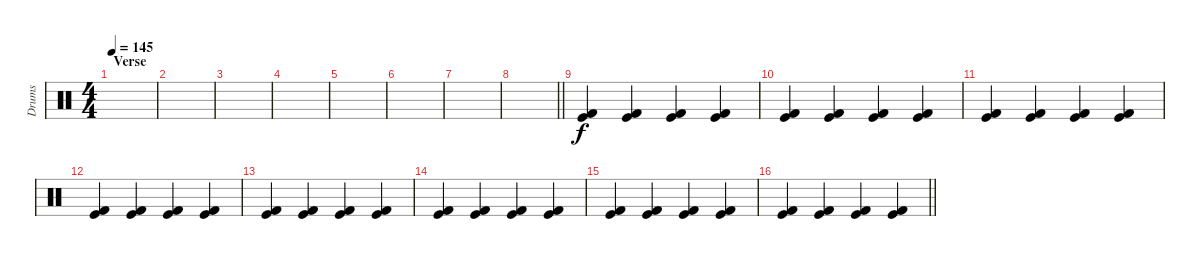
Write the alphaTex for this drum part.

\track ("Drums" "Drums") {instrument percussion}
\staff {score}
\articulation defaults
\ts (4 4)
\section ("" "Verse")
\tempo 145
\clef neutral
\ks c
|
|
|
|
|
|
|
\barLineRight lightlight
|
("Kick (hit)" "Kick (hit) 2").4 ("Kick (hit)" "Kick (hit) 2").4 ("Kick (hit)" "Kick (hit) 2").4 ("Kick (hit)" "Kick (hit) 2").4 |
("Kick (hit)" "Kick (hit) 2").4 ("Kick (hit)" "Kick (hit) 2").4 ("Kick (hit)" "Kick (hit) 2").4 ("Kick (hit)" "Kick (hit) 2").4 |
("Kick (hit)" "Kick (hit) 2").4 ("Kick (hit)" "Kick (hit) 2").4 ("Kick (hit)" "Kick (hit) 2").4 ("Kick (hit)" "Kick (hit) 2").4 |
("Kick (hit)" "Kick (hit) 2").4 ("Kick (hit)" "Kick (hit) 2").4 ("Kick (hit)" "Kick (hit) 2").4 ("Kick (hit)" "Kick (hit) 2").4 |
("Kick (hit)" "Kick (hit) 2").4 ("Kick (hit)" "Kick (hit) 2").4 ("Kick (hit)" "Kick (hit) 2").4 ("Kick (hit)" "Kick (hit) 2").4 |
("Kick (hit)" "Kick (hit) 2").4 ("Kick (hit)" "Kick (hit) 2").4 ("Kick (hit)" "Kick (hit) 2").4 ("Kick (hit)" "Kick (hit) 2").4 |
("Kick (hit)" "Kick (hit) 2").4 ("Kick (hit)" "Kick (hit) 2").4 ("Kick (hit)" "Kick (hit) 2").4 ("Kick (hit)" "Kick (hit) 2").4 |
\barLineRight lightlight
("Kick (hit)" "Kick (hit) 2").4 ("Kick (hit)" "Kick (hit) 2").4 ("Kick (hit)" "Kick (hit) 2").4 ("Kick (hit)" "Kick (hit) 2").4
